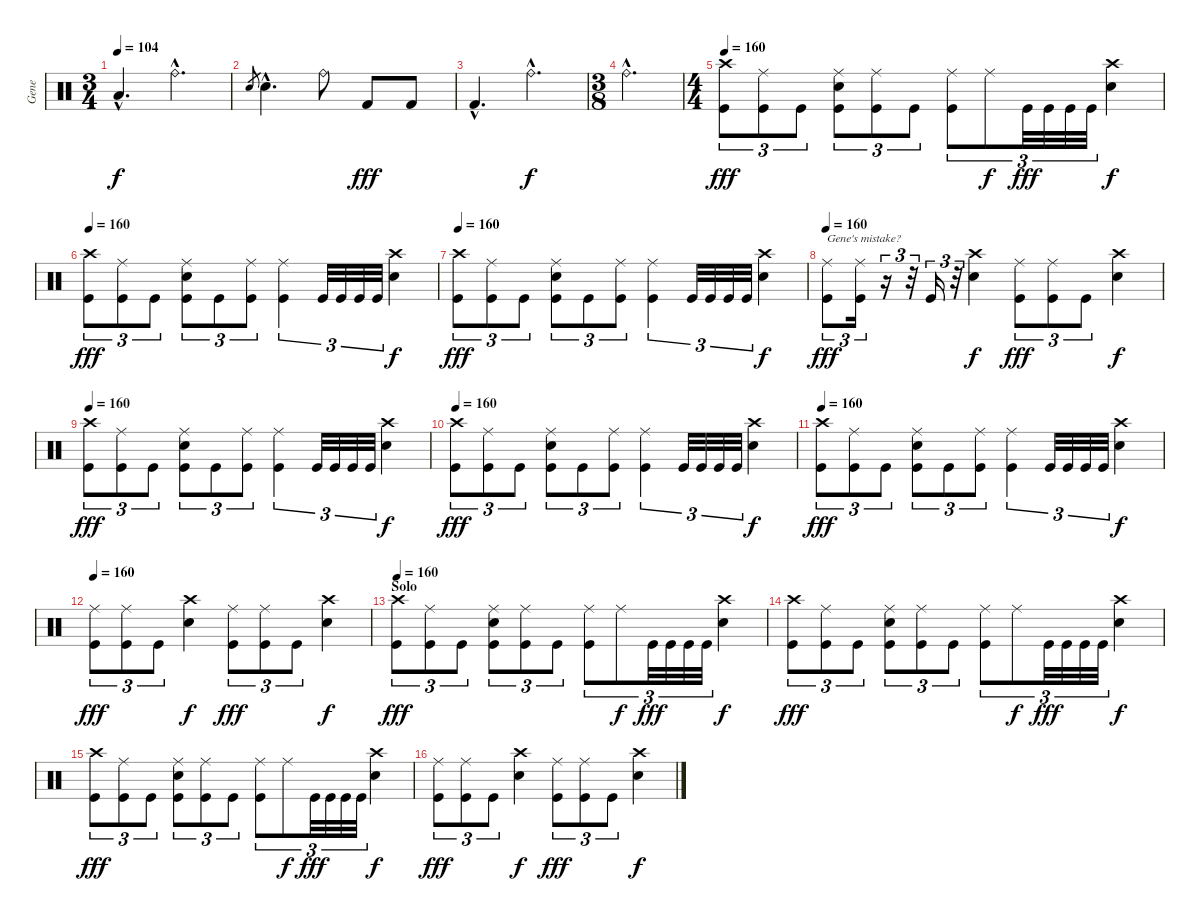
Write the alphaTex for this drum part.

\track ("Gene" "Gene") {instrument percussion}
\staff {score}
\articulation defaults
\ts (3 4)
\tempo 104
\clef neutral
\ks c "Low Tom (hit)"{hac}.4{d dy f} "Ride (bell)"{hac}.4{d}
|
"Snare (hit) 2".8{gr} "Snare (hit) 2"{hac}.4{d} "Ride (bell)".8 "Kick (hit) 2".8{dy fff} "Kick (hit) 2".8 |
"Kick (hit) 2"{hac}.4{d} "Ride (bell)"{hac}.4{d dy f} |
\ts (3 8)
"Ride (bell)"{hac}.4{d} |
\ts (4 4)
\tempo 160
("Crash high (hit)" "Kick (hit)").8{tu (3 2) dy fff} ("Ride (middle)" "Kick (hit)").8{tu (3 2)} "Kick (hit)".8{tu (3 2)} ("Ride (middle)" "Snare (hit) 2" "Kick (hit)").8{tu (3 2)} ("Ride (middle)" "Kick (hit)").8{tu (3 2)} "Kick (hit)".8{tu (3 2)} ("Ride (middle)" "Kick (hit)").8{tu (3 2)} "Ride (middle)".8{tu (3 2) dy f} "Kick (hit)".32{tu (3 2) dy fff} "Kick (hit)".32{tu (3 2)} "Kick (hit)".32{tu (3 2)} "Kick (hit)".32{tu (3 2)} ("Crash high (hit)" "Snare (hit) 2").4{dy f} |
\tempo 160
("Crash high (hit)" "Kick (hit)").8{tu (3 2) dy fff} ("Ride (middle)" "Kick (hit)").8{tu (3 2)} "Kick (hit)".8{tu (3 2)} ("Ride (middle)" "Snare (hit) 2" "Kick (hit)").8{tu (3 2)} "Kick (hit)".8{tu (3 2)} ("Ride (middle)" "Kick (hit)").8{tu (3 2)} ("Ride (middle)" "Kick (hit)").4{tu (3 2)} "Kick (hit)".32{tu (3 2)} "Kick (hit)".32{tu (3 2)} "Kick (hit)".32{tu (3 2)} "Kick (hit)".32{tu (3 2)} ("Crash high (hit)" "Snare (hit) 2").4{dy f} |
\tempo 160
("Crash high (hit)" "Kick (hit)").8{tu (3 2) dy fff} ("Ride (middle)" "Kick (hit)").8{tu (3 2)} "Kick (hit)".8{tu (3 2)} ("Ride (middle)" "Snare (hit) 2" "Kick (hit)").8{tu (3 2)} "Kick (hit)".8{tu (3 2)} ("Ride (middle)" "Kick (hit)").8{tu (3 2)} ("Ride (middle)" "Kick (hit)").4{tu (3 2)} "Kick (hit)".32{tu (3 2)} "Kick (hit)".32{tu (3 2)} "Kick (hit)".32{tu (3 2)} "Kick (hit)".32{tu (3 2)} ("Crash high (hit)" "Snare (hit) 2").4{dy f} |
\tempo 160
("Ride (middle)" "Kick (hit)").8{tu (3 2) txt "Gene's mistake?" dy fff} ("Ride (middle)" "Kick (hit)").16{tu (3 2)} r.16{tu (3 2)} r.32{tu (3 2)} "Kick (hit)".16{tu (3 2)} r.32{tu (3 2)} ("Crash high (hit)" "Snare (hit) 2").4{dy f} ("Ride (middle)" "Kick (hit)").8{tu (3 2) dy fff} ("Ride (middle)" "Kick (hit)").8{tu (3 2)} "Kick (hit)".8{tu (3 2)} ("Crash high (hit)" "Snare (hit) 2").4{dy f} |
\tempo 160
("Crash high (hit)" "Kick (hit)").8{tu (3 2) dy fff} ("Ride (middle)" "Kick (hit)").8{tu (3 2)} "Kick (hit)".8{tu (3 2)} ("Ride (middle)" "Snare (hit) 2" "Kick (hit)").8{tu (3 2)} "Kick (hit)".8{tu (3 2)} ("Ride (middle)" "Kick (hit)").8{tu (3 2)} ("Ride (middle)" "Kick (hit)").4{tu (3 2)} "Kick (hit)".32{tu (3 2)} "Kick (hit)".32{tu (3 2)} "Kick (hit)".32{tu (3 2)} "Kick (hit)".32{tu (3 2)} ("Crash high (hit)" "Snare (hit) 2").4{dy f} |
\tempo 160
("Crash high (hit)" "Kick (hit)").8{tu (3 2) dy fff} ("Ride (middle)" "Kick (hit)").8{tu (3 2)} "Kick (hit)".8{tu (3 2)} ("Ride (middle)" "Snare (hit) 2" "Kick (hit)").8{tu (3 2)} "Kick (hit)".8{tu (3 2)} ("Ride (middle)" "Kick (hit)").8{tu (3 2)} ("Ride (middle)" "Kick (hit)").4{tu (3 2)} "Kick (hit)".32{tu (3 2)} "Kick (hit)".32{tu (3 2)} "Kick (hit)".32{tu (3 2)} "Kick (hit)".32{tu (3 2)} ("Crash high (hit)" "Snare (hit) 2").4{dy f} |
\tempo 160
("Crash high (hit)" "Kick (hit)").8{tu (3 2) dy fff} ("Ride (middle)" "Kick (hit)").8{tu (3 2)} "Kick (hit)".8{tu (3 2)} ("Ride (middle)" "Snare (hit) 2" "Kick (hit)").8{tu (3 2)} "Kick (hit)".8{tu (3 2)} ("Ride (middle)" "Kick (hit)").8{tu (3 2)} ("Ride (middle)" "Kick (hit)").4{tu (3 2)} "Kick (hit)".32{tu (3 2)} "Kick (hit)".32{tu (3 2)} "Kick (hit)".32{tu (3 2)} "Kick (hit)".32{tu (3 2)} ("Crash high (hit)" "Snare (hit) 2").4{dy f} |
\tempo 160
("Ride (middle)" "Kick (hit)").8{tu (3 2) dy fff} ("Ride (middle)" "Kick (hit)").8{tu (3 2)} "Kick (hit)".8{tu (3 2)} ("Crash high (hit)" "Snare (hit) 2").4{dy f} ("Ride (middle)" "Kick (hit)").8{tu (3 2) dy fff} ("Ride (middle)" "Kick (hit)").8{tu (3 2)} "Kick (hit)".8{tu (3 2)} ("Crash high (hit)" "Snare (hit) 2").4{dy f} |
\section ("" "Solo")
\tempo 160
("Crash high (hit)" "Kick (hit)").8{tu (3 2) dy fff} ("Ride (middle)" "Kick (hit)").8{tu (3 2)} "Kick (hit)".8{tu (3 2)} ("Ride (middle)" "Snare (hit) 2" "Kick (hit)").8{tu (3 2)} ("Ride (middle)" "Kick (hit)").8{tu (3 2)} "Kick (hit)".8{tu (3 2)} ("Ride (middle)" "Kick (hit)").8{tu (3 2)} "Ride (middle)".8{tu (3 2) dy f} "Kick (hit)".32{tu (3 2) dy fff} "Kick (hit)".32{tu (3 2)} "Kick (hit)".32{tu (3 2)} "Kick (hit)".32{tu (3 2)} ("Crash high (hit)" "Snare (hit) 2").4{dy f} |
("Crash high (hit)" "Kick (hit)").8{tu (3 2) dy fff} ("Ride (middle)" "Kick (hit)").8{tu (3 2)} "Kick (hit)".8{tu (3 2)} ("Ride (middle)" "Snare (hit) 2" "Kick (hit)").8{tu (3 2)} ("Ride (middle)" "Kick (hit)").8{tu (3 2)} "Kick (hit)".8{tu (3 2)} ("Ride (middle)" "Kick (hit)").8{tu (3 2)} "Ride (middle)".8{tu (3 2) dy f} "Kick (hit)".32{tu (3 2) dy fff} "Kick (hit)".32{tu (3 2)} "Kick (hit)".32{tu (3 2)} "Kick (hit)".32{tu (3 2)} ("Crash high (hit)" "Snare (hit) 2").4{dy f} |
("Crash high (hit)" "Kick (hit)").8{tu (3 2) dy fff} ("Ride (middle)" "Kick (hit)").8{tu (3 2)} "Kick (hit)".8{tu (3 2)} ("Ride (middle)" "Snare (hit) 2" "Kick (hit)").8{tu (3 2)} ("Ride (middle)" "Kick (hit)").8{tu (3 2)} "Kick (hit)".8{tu (3 2)} ("Ride (middle)" "Kick (hit)").8{tu (3 2)} "Ride (middle)".8{tu (3 2) dy f} "Kick (hit)".32{tu (3 2) dy fff} "Kick (hit)".32{tu (3 2)} "Kick (hit)".32{tu (3 2)} "Kick (hit)".32{tu (3 2)} ("Crash high (hit)" "Snare (hit) 2").4{dy f} |
("Ride (middle)" "Kick (hit)").8{tu (3 2) dy fff} ("Ride (middle)" "Kick (hit)").8{tu (3 2)} "Kick (hit)".8{tu (3 2)} ("Crash high (hit)" "Snare (hit) 2").4{dy f} ("Ride (middle)" "Kick (hit)").8{tu (3 2) dy fff} ("Ride (middle)" "Kick (hit)").8{tu (3 2)} "Kick (hit)".8{tu (3 2)} ("Crash high (hit)" "Snare (hit) 2").4{dy f}
